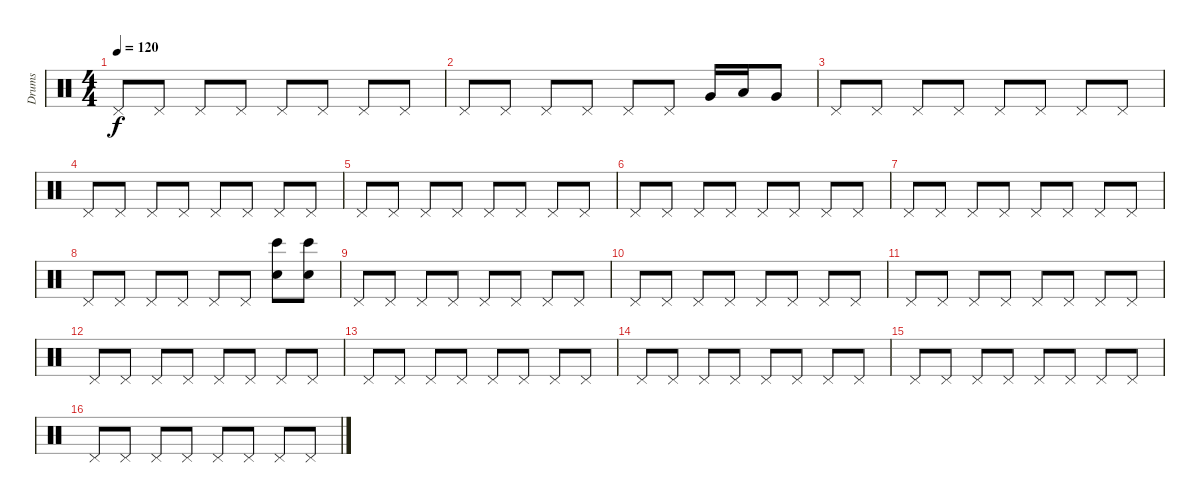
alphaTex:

\track ("Drums" "Drums") {instrument percussion}
\staff {score}
\articulation defaults
\ts (4 4)
\tempo 120
\clef neutral
\ks c "Pedal Hi-Hat (hit)".8{dy f} "Pedal Hi-Hat (hit)".8 "Pedal Hi-Hat (hit)".8 "Pedal Hi-Hat (hit)".8 "Pedal Hi-Hat (hit)".8 "Pedal Hi-Hat (hit)".8 "Pedal Hi-Hat (hit)".8 "Pedal Hi-Hat (hit)".8
|
"Pedal Hi-Hat (hit)".8 "Pedal Hi-Hat (hit)".8 "Pedal Hi-Hat (hit)".8 "Pedal Hi-Hat (hit)".8 "Pedal Hi-Hat (hit)".8 "Pedal Hi-Hat (hit)".8 "Very Low Tom (hit)".16 "Low Tom (hit)".16 "Very Low Tom (hit)".8 |
"Pedal Hi-Hat (hit)".8 "Pedal Hi-Hat (hit)".8 "Pedal Hi-Hat (hit)".8 "Pedal Hi-Hat (hit)".8 "Pedal Hi-Hat (hit)".8 "Pedal Hi-Hat (hit)".8 "Pedal Hi-Hat (hit)".8 "Pedal Hi-Hat (hit)".8 |
"Pedal Hi-Hat (hit)".8 "Pedal Hi-Hat (hit)".8 "Pedal Hi-Hat (hit)".8 "Pedal Hi-Hat (hit)".8 "Pedal Hi-Hat (hit)".8 "Pedal Hi-Hat (hit)".8 "Pedal Hi-Hat (hit)".8 "Pedal Hi-Hat (hit)".8 |
"Pedal Hi-Hat (hit)".8 "Pedal Hi-Hat (hit)".8 "Pedal Hi-Hat (hit)".8 "Pedal Hi-Hat (hit)".8 "Pedal Hi-Hat (hit)".8 "Pedal Hi-Hat (hit)".8 "Pedal Hi-Hat (hit)".8 "Pedal Hi-Hat (hit)".8 |
"Pedal Hi-Hat (hit)".8 "Pedal Hi-Hat (hit)".8 "Pedal Hi-Hat (hit)".8 "Pedal Hi-Hat (hit)".8 "Pedal Hi-Hat (hit)".8 "Pedal Hi-Hat (hit)".8 "Pedal Hi-Hat (hit)".8 "Pedal Hi-Hat (hit)".8 |
"Pedal Hi-Hat (hit)".8 "Pedal Hi-Hat (hit)".8 "Pedal Hi-Hat (hit)".8 "Pedal Hi-Hat (hit)".8 "Pedal Hi-Hat (hit)".8 "Pedal Hi-Hat (hit)".8 "Pedal Hi-Hat (hit)".8 "Pedal Hi-Hat (hit)".8 |
"Pedal Hi-Hat (hit)".8 "Pedal Hi-Hat (hit)".8 "Pedal Hi-Hat (hit)".8 "Pedal Hi-Hat (hit)".8 "Pedal Hi-Hat (hit)".8 "Pedal Hi-Hat (hit)".8 ("Bongo High (hit)" "Hand Clap (hit)").8 ("Bongo High (hit)" "Hand Clap (hit)").8 |
"Pedal Hi-Hat (hit)".8 "Pedal Hi-Hat (hit)".8 "Pedal Hi-Hat (hit)".8 "Pedal Hi-Hat (hit)".8 "Pedal Hi-Hat (hit)".8 "Pedal Hi-Hat (hit)".8 "Pedal Hi-Hat (hit)".8 "Pedal Hi-Hat (hit)".8 |
"Pedal Hi-Hat (hit)".8 "Pedal Hi-Hat (hit)".8 "Pedal Hi-Hat (hit)".8 "Pedal Hi-Hat (hit)".8 "Pedal Hi-Hat (hit)".8 "Pedal Hi-Hat (hit)".8 "Pedal Hi-Hat (hit)".8 "Pedal Hi-Hat (hit)".8 |
"Pedal Hi-Hat (hit)".8 "Pedal Hi-Hat (hit)".8 "Pedal Hi-Hat (hit)".8 "Pedal Hi-Hat (hit)".8 "Pedal Hi-Hat (hit)".8 "Pedal Hi-Hat (hit)".8 "Pedal Hi-Hat (hit)".8 "Pedal Hi-Hat (hit)".8 |
"Pedal Hi-Hat (hit)".8 "Pedal Hi-Hat (hit)".8 "Pedal Hi-Hat (hit)".8 "Pedal Hi-Hat (hit)".8 "Pedal Hi-Hat (hit)".8 "Pedal Hi-Hat (hit)".8 "Pedal Hi-Hat (hit)".8 "Pedal Hi-Hat (hit)".8 |
"Pedal Hi-Hat (hit)".8 "Pedal Hi-Hat (hit)".8 "Pedal Hi-Hat (hit)".8 "Pedal Hi-Hat (hit)".8 "Pedal Hi-Hat (hit)".8 "Pedal Hi-Hat (hit)".8 "Pedal Hi-Hat (hit)".8 "Pedal Hi-Hat (hit)".8 |
"Pedal Hi-Hat (hit)".8 "Pedal Hi-Hat (hit)".8 "Pedal Hi-Hat (hit)".8 "Pedal Hi-Hat (hit)".8 "Pedal Hi-Hat (hit)".8 "Pedal Hi-Hat (hit)".8 "Pedal Hi-Hat (hit)".8 "Pedal Hi-Hat (hit)".8 |
"Pedal Hi-Hat (hit)".8 "Pedal Hi-Hat (hit)".8 "Pedal Hi-Hat (hit)".8 "Pedal Hi-Hat (hit)".8 "Pedal Hi-Hat (hit)".8 "Pedal Hi-Hat (hit)".8 "Pedal Hi-Hat (hit)".8 "Pedal Hi-Hat (hit)".8 |
"Pedal Hi-Hat (hit)".8 "Pedal Hi-Hat (hit)".8 "Pedal Hi-Hat (hit)".8 "Pedal Hi-Hat (hit)".8 "Pedal Hi-Hat (hit)".8 "Pedal Hi-Hat (hit)".8 "Pedal Hi-Hat (hit)".8 "Pedal Hi-Hat (hit)".8
